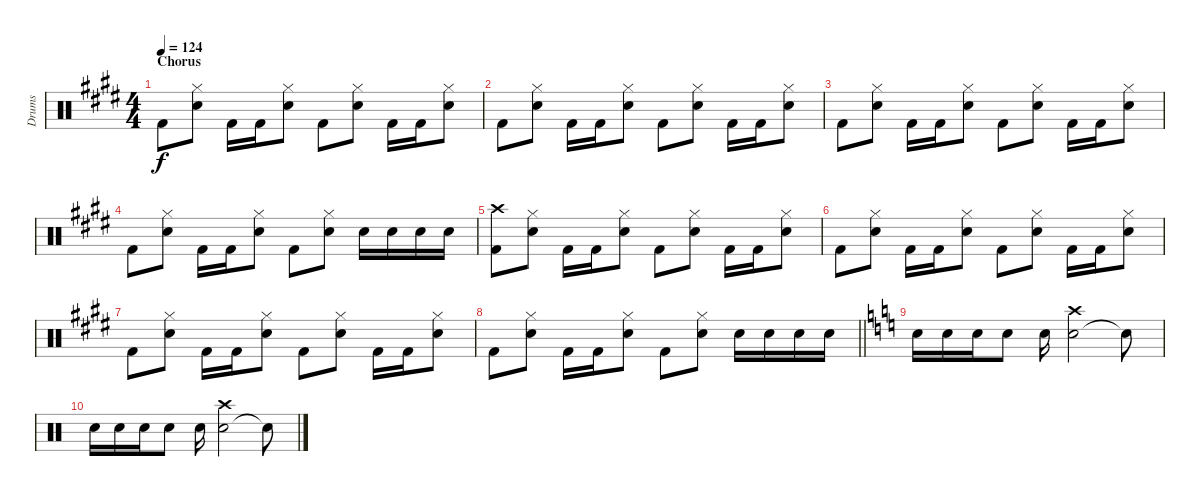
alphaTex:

\track ("Drums" "Drums") {instrument percussion}
\staff {score}
\articulation defaults
\ts (4 4)
\section ("" "Chorus")
\tempo 124
\clef neutral
\ks c#minor "Kick (hit) 2".8{dy f}
("Snare (hit) 2" "Hi-Hat (closed)").8 "Kick (hit) 2".16 "Kick (hit) 2".16 ("Snare (hit) 2" "Hi-Hat (closed)").8 "Kick (hit) 2".8 ("Snare (hit) 2" "Hi-Hat (closed)").8 "Kick (hit) 2".16 "Kick (hit) 2".16 ("Snare (hit) 2" "Hi-Hat (closed)").8 |
"Kick (hit) 2".8 ("Snare (hit) 2" "Hi-Hat (closed)").8 "Kick (hit) 2".16 "Kick (hit) 2".16 ("Snare (hit) 2" "Hi-Hat (closed)").8 "Kick (hit) 2".8 ("Snare (hit) 2" "Hi-Hat (closed)").8 "Kick (hit) 2".16 "Kick (hit) 2".16 ("Snare (hit) 2" "Hi-Hat (closed)").8 |
"Kick (hit) 2".8 ("Snare (hit) 2" "Hi-Hat (closed)").8 "Kick (hit) 2".16 "Kick (hit) 2".16 ("Snare (hit) 2" "Hi-Hat (closed)").8 "Kick (hit) 2".8 ("Snare (hit) 2" "Hi-Hat (closed)").8 "Kick (hit) 2".16 "Kick (hit) 2".16 ("Snare (hit) 2" "Hi-Hat (closed)").8 |
"Kick (hit) 2".8 ("Snare (hit) 2" "Hi-Hat (closed)").8 "Kick (hit) 2".16 "Kick (hit) 2".16 ("Snare (hit) 2" "Hi-Hat (closed)").8 "Kick (hit) 2".8 ("Snare (hit) 2" "Hi-Hat (closed)").8 "Electric Snare (hit)".16 "Electric Snare (hit)".16 "Electric Snare (hit)".16 "Electric Snare (hit)".16 |
("Kick (hit) 2" "Crash high (hit)").8 ("Snare (hit) 2" "Hi-Hat (closed)").8 "Kick (hit) 2".16 "Kick (hit) 2".16 ("Snare (hit) 2" "Hi-Hat (closed)").8 "Kick (hit) 2".8 ("Snare (hit) 2" "Hi-Hat (closed)").8 "Kick (hit) 2".16 "Kick (hit) 2".16 ("Snare (hit) 2" "Hi-Hat (closed)").8 |
"Kick (hit) 2".8 ("Snare (hit) 2" "Hi-Hat (closed)").8 "Kick (hit) 2".16 "Kick (hit) 2".16 ("Snare (hit) 2" "Hi-Hat (closed)").8 "Kick (hit) 2".8 ("Snare (hit) 2" "Hi-Hat (closed)").8 "Kick (hit) 2".16 "Kick (hit) 2".16 ("Snare (hit) 2" "Hi-Hat (closed)").8 |
"Kick (hit) 2".8 ("Snare (hit) 2" "Hi-Hat (closed)").8 "Kick (hit) 2".16 "Kick (hit) 2".16 ("Snare (hit) 2" "Hi-Hat (closed)").8 "Kick (hit) 2".8 ("Snare (hit) 2" "Hi-Hat (closed)").8 "Kick (hit) 2".16 "Kick (hit) 2".16 ("Snare (hit) 2" "Hi-Hat (closed)").8 |
\barLineRight lightlight "Kick (hit) 2".8
("Snare (hit) 2" "Hi-Hat (closed)").8 "Kick (hit) 2".16 "Kick (hit) 2".16 ("Snare (hit) 2" "Hi-Hat (closed)").8 "Kick (hit) 2".8 ("Snare (hit) 2" "Hi-Hat (closed)").8 "Electric Snare (hit)".16 "Electric Snare (hit)".16 "Electric Snare (hit)".16 "Electric Snare (hit)".16 |
\ks c "Electric Snare (hit)".16 "Electric Snare (hit)".16 "Electric Snare (hit)".16 "Electric Snare (hit)".8 "Electric Snare (hit)".16
("Electric Snare (hit)" "Crash high (hit)").2 "Snare (hit)"{t}.8 |
"Electric Snare (hit)".16 "Electric Snare (hit)".16 "Electric Snare (hit)".16 "Electric Snare (hit)".8 "Electric Snare (hit)".16 ("Electric Snare (hit)" "Crash high (hit)").2 "Snare (hit)"{t}.8
